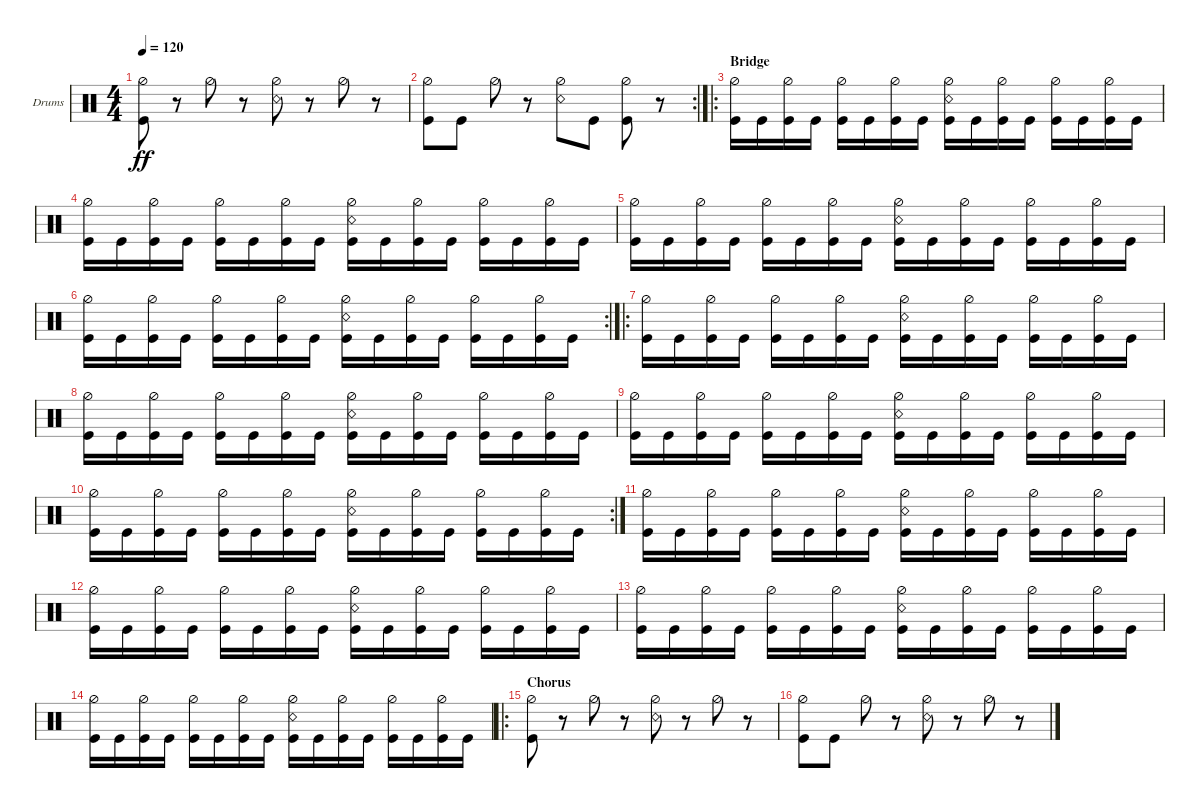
\bracketExtendMode groupsimilarinstruments
\firstSystemTrackNameOrientation horizontal
\otherSystemsTrackNameOrientation horizontal
\track ("Drumkit" "Drums") {instrument percussion}
\staff {score}
\articulation defaults
\ts (4 4)
\tempo 120
\clef neutral
\ks c
("Hi-Hat (half)" "Kick (hit)").8{dy ff} r.8 "Hi-Hat (half)".8 r.8 ("Hi-Hat (half)" "Snare (rim shot)").8 r.8 "Hi-Hat (half)".8 r.8 |
\rc 2
("Hi-Hat (half)" "Kick (hit)").8 "Kick (hit)".8 "Hi-Hat (half)".8 r.8 ("Hi-Hat (half)" "Snare (rim shot)").8 "Kick (hit)".8 ("Hi-Hat (half)" "Kick (hit)").8 r.8 |
\ro
\section ("" "Bridge")
("Kick (hit)" "Hi-Hat (half)").16 "Kick (hit)".16 ("Kick (hit)" "Hi-Hat (half)").16 "Kick (hit)".16 ("Kick (hit)" "Hi-Hat (half)").16 "Kick (hit)".16 ("Kick (hit)" "Hi-Hat (half)").16 "Kick (hit)".16 ("Kick (hit)" "Hi-Hat (half)" "Snare (rim shot)").16 "Kick (hit)".16 ("Kick (hit)" "Hi-Hat (half)").16 "Kick (hit)".16 ("Kick (hit)" "Hi-Hat (half)").16 "Kick (hit)".16 ("Kick (hit)" "Hi-Hat (half)").16 "Kick (hit)".16 |
("Kick (hit)" "Hi-Hat (half)").16 "Kick (hit)".16 ("Kick (hit)" "Hi-Hat (half)").16 "Kick (hit)".16 ("Kick (hit)" "Hi-Hat (half)").16 "Kick (hit)".16 ("Kick (hit)" "Hi-Hat (half)").16 "Kick (hit)".16 ("Kick (hit)" "Hi-Hat (half)" "Snare (rim shot)").16 "Kick (hit)".16 ("Kick (hit)" "Hi-Hat (half)").16 "Kick (hit)".16 ("Kick (hit)" "Hi-Hat (half)").16 "Kick (hit)".16 ("Kick (hit)" "Hi-Hat (half)").16 "Kick (hit)".16 |
("Kick (hit)" "Hi-Hat (half)").16 "Kick (hit)".16 ("Kick (hit)" "Hi-Hat (half)").16 "Kick (hit)".16 ("Kick (hit)" "Hi-Hat (half)").16 "Kick (hit)".16 ("Kick (hit)" "Hi-Hat (half)").16 "Kick (hit)".16 ("Kick (hit)" "Hi-Hat (half)" "Snare (rim shot)").16 "Kick (hit)".16 ("Kick (hit)" "Hi-Hat (half)").16 "Kick (hit)".16 ("Kick (hit)" "Hi-Hat (half)").16 "Kick (hit)".16 ("Kick (hit)" "Hi-Hat (half)").16 "Kick (hit)".16 |
\rc 2
("Kick (hit)" "Hi-Hat (half)").16 "Kick (hit)".16 ("Kick (hit)" "Hi-Hat (half)").16 "Kick (hit)".16 ("Kick (hit)" "Hi-Hat (half)").16 "Kick (hit)".16 ("Kick (hit)" "Hi-Hat (half)").16 "Kick (hit)".16 ("Kick (hit)" "Hi-Hat (half)" "Snare (rim shot)").16 "Kick (hit)".16 ("Kick (hit)" "Hi-Hat (half)").16 "Kick (hit)".16 ("Kick (hit)" "Hi-Hat (half)").16 "Kick (hit)".16 ("Kick (hit)" "Hi-Hat (half)").16 "Kick (hit)".16 |
\ro
("Kick (hit)" "Hi-Hat (half)").16 "Kick (hit)".16 ("Kick (hit)" "Hi-Hat (half)").16 "Kick (hit)".16 ("Kick (hit)" "Hi-Hat (half)").16 "Kick (hit)".16 ("Kick (hit)" "Hi-Hat (half)").16 "Kick (hit)".16 ("Kick (hit)" "Hi-Hat (half)" "Snare (rim shot)").16 "Kick (hit)".16 ("Kick (hit)" "Hi-Hat (half)").16 "Kick (hit)".16 ("Kick (hit)" "Hi-Hat (half)").16 "Kick (hit)".16 ("Kick (hit)" "Hi-Hat (half)").16 "Kick (hit)".16 |
("Kick (hit)" "Hi-Hat (half)").16 "Kick (hit)".16 ("Kick (hit)" "Hi-Hat (half)").16 "Kick (hit)".16 ("Kick (hit)" "Hi-Hat (half)").16 "Kick (hit)".16 ("Kick (hit)" "Hi-Hat (half)").16 "Kick (hit)".16 ("Kick (hit)" "Hi-Hat (half)" "Snare (rim shot)").16 "Kick (hit)".16 ("Kick (hit)" "Hi-Hat (half)").16 "Kick (hit)".16 ("Kick (hit)" "Hi-Hat (half)").16 "Kick (hit)".16 ("Kick (hit)" "Hi-Hat (half)").16 "Kick (hit)".16 |
("Kick (hit)" "Hi-Hat (half)").16 "Kick (hit)".16 ("Kick (hit)" "Hi-Hat (half)").16 "Kick (hit)".16 ("Kick (hit)" "Hi-Hat (half)").16 "Kick (hit)".16 ("Kick (hit)" "Hi-Hat (half)").16 "Kick (hit)".16 ("Kick (hit)" "Hi-Hat (half)" "Snare (rim shot)").16 "Kick (hit)".16 ("Kick (hit)" "Hi-Hat (half)").16 "Kick (hit)".16 ("Kick (hit)" "Hi-Hat (half)").16 "Kick (hit)".16 ("Kick (hit)" "Hi-Hat (half)").16 "Kick (hit)".16 |
\rc 2
("Kick (hit)" "Hi-Hat (half)").16 "Kick (hit)".16 ("Kick (hit)" "Hi-Hat (half)").16 "Kick (hit)".16 ("Kick (hit)" "Hi-Hat (half)").16 "Kick (hit)".16 ("Kick (hit)" "Hi-Hat (half)").16 "Kick (hit)".16 ("Kick (hit)" "Hi-Hat (half)" "Snare (rim shot)").16 "Kick (hit)".16 ("Kick (hit)" "Hi-Hat (half)").16 "Kick (hit)".16 ("Kick (hit)" "Hi-Hat (half)").16 "Kick (hit)".16 ("Kick (hit)" "Hi-Hat (half)").16 "Kick (hit)".16 |
("Kick (hit)" "Hi-Hat (half)").16 "Kick (hit)".16 ("Kick (hit)" "Hi-Hat (half)").16 "Kick (hit)".16 ("Kick (hit)" "Hi-Hat (half)").16 "Kick (hit)".16 ("Kick (hit)" "Hi-Hat (half)").16 "Kick (hit)".16 ("Kick (hit)" "Hi-Hat (half)" "Snare (rim shot)").16 "Kick (hit)".16 ("Kick (hit)" "Hi-Hat (half)").16 "Kick (hit)".16 ("Kick (hit)" "Hi-Hat (half)").16 "Kick (hit)".16 ("Kick (hit)" "Hi-Hat (half)").16 "Kick (hit)".16 |
("Kick (hit)" "Hi-Hat (half)").16 "Kick (hit)".16 ("Kick (hit)" "Hi-Hat (half)").16 "Kick (hit)".16 ("Kick (hit)" "Hi-Hat (half)").16 "Kick (hit)".16 ("Kick (hit)" "Hi-Hat (half)").16 "Kick (hit)".16 ("Kick (hit)" "Hi-Hat (half)" "Snare (rim shot)").16 "Kick (hit)".16 ("Kick (hit)" "Hi-Hat (half)").16 "Kick (hit)".16 ("Kick (hit)" "Hi-Hat (half)").16 "Kick (hit)".16 ("Kick (hit)" "Hi-Hat (half)").16 "Kick (hit)".16 |
("Kick (hit)" "Hi-Hat (half)").16 "Kick (hit)".16 ("Kick (hit)" "Hi-Hat (half)").16 "Kick (hit)".16 ("Kick (hit)" "Hi-Hat (half)").16 "Kick (hit)".16 ("Kick (hit)" "Hi-Hat (half)").16 "Kick (hit)".16 ("Kick (hit)" "Hi-Hat (half)" "Snare (rim shot)").16 "Kick (hit)".16 ("Kick (hit)" "Hi-Hat (half)").16 "Kick (hit)".16 ("Kick (hit)" "Hi-Hat (half)").16 "Kick (hit)".16 ("Kick (hit)" "Hi-Hat (half)").16 "Kick (hit)".16 |
("Kick (hit)" "Hi-Hat (half)").16 "Kick (hit)".16 ("Kick (hit)" "Hi-Hat (half)").16 "Kick (hit)".16 ("Kick (hit)" "Hi-Hat (half)").16 "Kick (hit)".16 ("Kick (hit)" "Hi-Hat (half)").16 "Kick (hit)".16 ("Kick (hit)" "Hi-Hat (half)" "Snare (rim shot)").16 "Kick (hit)".16 ("Kick (hit)" "Hi-Hat (half)").16 "Kick (hit)".16 ("Kick (hit)" "Hi-Hat (half)").16 "Kick (hit)".16 ("Kick (hit)" "Hi-Hat (half)").16 "Kick (hit)".16 |
\ro
\section ("" "Chorus")
("Hi-Hat (half)" "Kick (hit)").8 r.8 "Hi-Hat (half)".8 r.8 ("Hi-Hat (half)" "Snare (rim shot)").8 r.8 "Hi-Hat (half)".8 r.8 |
("Hi-Hat (half)" "Kick (hit)").8 "Kick (hit)".8 "Hi-Hat (half)".8 r.8 ("Hi-Hat (half)" "Snare (rim shot)").8 r.8 "Hi-Hat (half)".8 r.8
